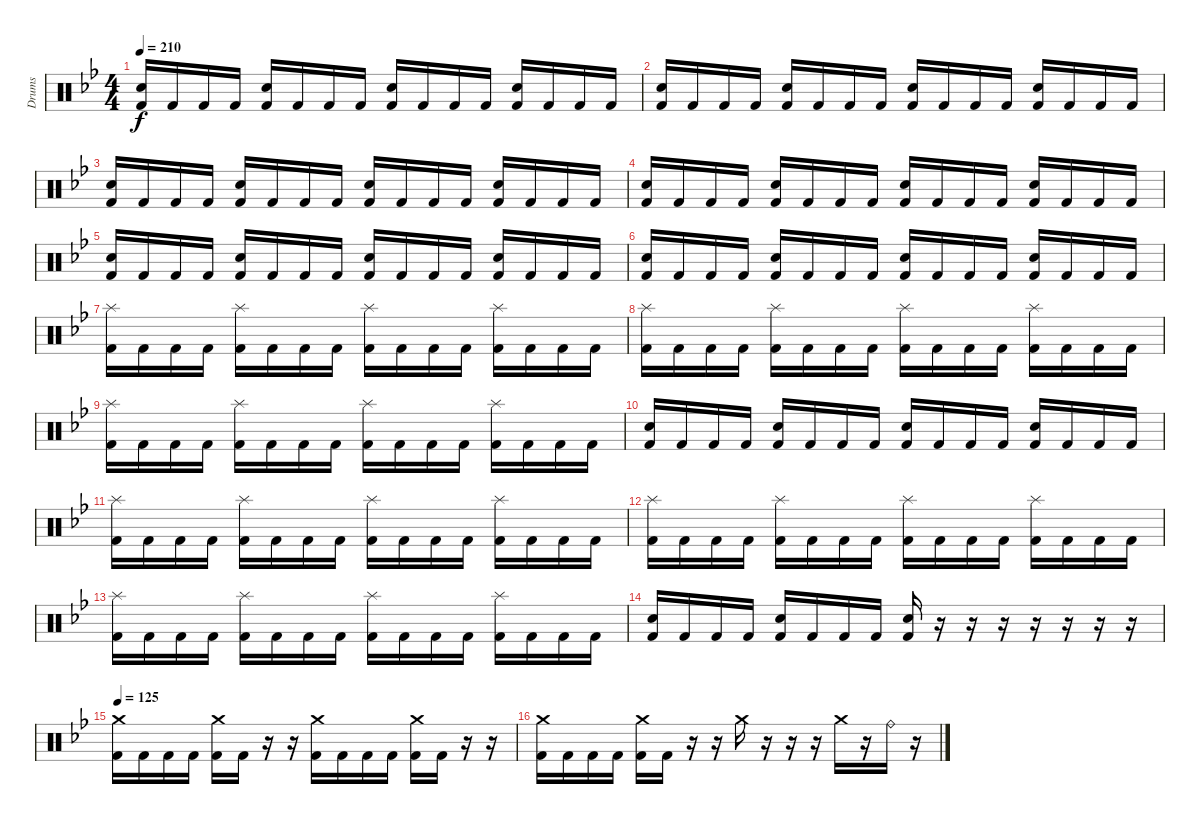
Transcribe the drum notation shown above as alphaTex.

\track ("Drums" "Drums") {instrument percussion}
\staff {score}
\articulation defaults
\ts (4 4)
\tempo 210
\clef neutral
\ks bb
("Electric Snare (hit)" "Kick (hit) 2").16{dy f} "Kick (hit) 2".16 "Kick (hit) 2".16 "Kick (hit) 2".16 ("Electric Snare (hit)" "Kick (hit) 2").16 "Kick (hit) 2".16 "Kick (hit) 2".16 "Kick (hit) 2".16 ("Electric Snare (hit)" "Kick (hit) 2").16 "Kick (hit) 2".16 "Kick (hit) 2".16 "Kick (hit) 2".16 ("Electric Snare (hit)" "Kick (hit) 2").16 "Kick (hit) 2".16 "Kick (hit) 2".16 "Kick (hit) 2".16 |
("Electric Snare (hit)" "Kick (hit) 2").16 "Kick (hit) 2".16 "Kick (hit) 2".16 "Kick (hit) 2".16 ("Electric Snare (hit)" "Kick (hit) 2").16 "Kick (hit) 2".16 "Kick (hit) 2".16 "Kick (hit) 2".16 ("Electric Snare (hit)" "Kick (hit) 2").16 "Kick (hit) 2".16 "Kick (hit) 2".16 "Kick (hit) 2".16 ("Electric Snare (hit)" "Kick (hit) 2").16 "Kick (hit) 2".16 "Kick (hit) 2".16 "Kick (hit) 2".16 |
("Electric Snare (hit)" "Kick (hit) 2").16 "Kick (hit) 2".16 "Kick (hit) 2".16 "Kick (hit) 2".16 ("Electric Snare (hit)" "Kick (hit) 2").16 "Kick (hit) 2".16 "Kick (hit) 2".16 "Kick (hit) 2".16 ("Electric Snare (hit)" "Kick (hit) 2").16 "Kick (hit) 2".16 "Kick (hit) 2".16 "Kick (hit) 2".16 ("Electric Snare (hit)" "Kick (hit) 2").16 "Kick (hit) 2".16 "Kick (hit) 2".16 "Kick (hit) 2".16 |
("Electric Snare (hit)" "Kick (hit) 2").16 "Kick (hit) 2".16 "Kick (hit) 2".16 "Kick (hit) 2".16 ("Electric Snare (hit)" "Kick (hit) 2").16 "Kick (hit) 2".16 "Kick (hit) 2".16 "Kick (hit) 2".16 ("Electric Snare (hit)" "Kick (hit) 2").16 "Kick (hit) 2".16 "Kick (hit) 2".16 "Kick (hit) 2".16 ("Electric Snare (hit)" "Kick (hit) 2").16 "Kick (hit) 2".16 "Kick (hit) 2".16 "Kick (hit) 2".16 |
("Electric Snare (hit)" "Kick (hit) 2").16 "Kick (hit) 2".16 "Kick (hit) 2".16 "Kick (hit) 2".16 ("Electric Snare (hit)" "Kick (hit) 2").16 "Kick (hit) 2".16 "Kick (hit) 2".16 "Kick (hit) 2".16 ("Electric Snare (hit)" "Kick (hit) 2").16 "Kick (hit) 2".16 "Kick (hit) 2".16 "Kick (hit) 2".16 ("Electric Snare (hit)" "Kick (hit) 2").16 "Kick (hit) 2".16 "Kick (hit) 2".16 "Kick (hit) 2".16 |
("Electric Snare (hit)" "Kick (hit) 2").16 "Kick (hit) 2".16 "Kick (hit) 2".16 "Kick (hit) 2".16 ("Electric Snare (hit)" "Kick (hit) 2").16 "Kick (hit) 2".16 "Kick (hit) 2".16 "Kick (hit) 2".16 ("Electric Snare (hit)" "Kick (hit) 2").16 "Kick (hit) 2".16 "Kick (hit) 2".16 "Kick (hit) 2".16 ("Electric Snare (hit)" "Kick (hit) 2").16 "Kick (hit) 2".16 "Kick (hit) 2".16 "Kick (hit) 2".16 |
("Splash (hit)" "Kick (hit) 2").16 "Kick (hit) 2".16 "Kick (hit) 2".16 "Kick (hit) 2".16 ("Splash (hit)" "Kick (hit) 2").16 "Kick (hit) 2".16 "Kick (hit) 2".16 "Kick (hit) 2".16 ("Splash (hit)" "Kick (hit) 2").16 "Kick (hit) 2".16 "Kick (hit) 2".16 "Kick (hit) 2".16 ("Splash (hit)" "Kick (hit) 2").16 "Kick (hit) 2".16 "Kick (hit) 2".16 "Kick (hit) 2".16 |
("Splash (hit)" "Kick (hit) 2").16 "Kick (hit) 2".16 "Kick (hit) 2".16 "Kick (hit) 2".16 ("Splash (hit)" "Kick (hit) 2").16 "Kick (hit) 2".16 "Kick (hit) 2".16 "Kick (hit) 2".16 ("Splash (hit)" "Kick (hit) 2").16 "Kick (hit) 2".16 "Kick (hit) 2".16 "Kick (hit) 2".16 ("Splash (hit)" "Kick (hit) 2").16 "Kick (hit) 2".16 "Kick (hit) 2".16 "Kick (hit) 2".16 |
("Splash (hit)" "Kick (hit) 2").16 "Kick (hit) 2".16 "Kick (hit) 2".16 "Kick (hit) 2".16 ("Splash (hit)" "Kick (hit) 2").16 "Kick (hit) 2".16 "Kick (hit) 2".16 "Kick (hit) 2".16 ("Splash (hit)" "Kick (hit) 2").16 "Kick (hit) 2".16 "Kick (hit) 2".16 "Kick (hit) 2".16 ("Splash (hit)" "Kick (hit) 2").16 "Kick (hit) 2".16 "Kick (hit) 2".16 "Kick (hit) 2".16 |
("Electric Snare (hit)" "Kick (hit) 2").16 "Kick (hit) 2".16 "Kick (hit) 2".16 "Kick (hit) 2".16 ("Electric Snare (hit)" "Kick (hit) 2").16 "Kick (hit) 2".16 "Kick (hit) 2".16 "Kick (hit) 2".16 ("Electric Snare (hit)" "Kick (hit) 2").16 "Kick (hit) 2".16 "Kick (hit) 2".16 "Kick (hit) 2".16 ("Electric Snare (hit)" "Kick (hit) 2").16 "Kick (hit) 2".16 "Kick (hit) 2".16 "Kick (hit) 2".16 |
("Splash (hit)" "Kick (hit) 2").16 "Kick (hit) 2".16 "Kick (hit) 2".16 "Kick (hit) 2".16 ("Splash (hit)" "Kick (hit) 2").16 "Kick (hit) 2".16 "Kick (hit) 2".16 "Kick (hit) 2".16 ("Splash (hit)" "Kick (hit) 2").16 "Kick (hit) 2".16 "Kick (hit) 2".16 "Kick (hit) 2".16 ("Splash (hit)" "Kick (hit) 2").16 "Kick (hit) 2".16 "Kick (hit) 2".16 "Kick (hit) 2".16 |
("Splash (hit)" "Kick (hit) 2").16 "Kick (hit) 2".16 "Kick (hit) 2".16 "Kick (hit) 2".16 ("Splash (hit)" "Kick (hit) 2").16 "Kick (hit) 2".16 "Kick (hit) 2".16 "Kick (hit) 2".16 ("Splash (hit)" "Kick (hit) 2").16 "Kick (hit) 2".16 "Kick (hit) 2".16 "Kick (hit) 2".16 ("Splash (hit)" "Kick (hit) 2").16 "Kick (hit) 2".16 "Kick (hit) 2".16 "Kick (hit) 2".16 |
("Splash (hit)" "Kick (hit) 2").16 "Kick (hit) 2".16 "Kick (hit) 2".16 "Kick (hit) 2".16 ("Splash (hit)" "Kick (hit) 2").16 "Kick (hit) 2".16 "Kick (hit) 2".16 "Kick (hit) 2".16 ("Splash (hit)" "Kick (hit) 2").16 "Kick (hit) 2".16 "Kick (hit) 2".16 "Kick (hit) 2".16 ("Splash (hit)" "Kick (hit) 2").16 "Kick (hit) 2".16 "Kick (hit) 2".16 "Kick (hit) 2".16 |
("Electric Snare (hit)" "Kick (hit) 2").16 "Kick (hit) 2".16 "Kick (hit) 2".16 "Kick (hit) 2".16 ("Electric Snare (hit)" "Kick (hit) 2").16 "Kick (hit) 2".16 "Kick (hit) 2".16 "Kick (hit) 2".16 ("Electric Snare (hit)" "Kick (hit) 2").16 r.16 r.16 r.16 r.16 r.16 r.16 r.16 |
\tempo 125
("Crash medium (hit)" "Kick (hit) 2").16 "Kick (hit) 2".16 "Kick (hit) 2".16 "Kick (hit) 2".16 ("Crash medium (hit)" "Kick (hit) 2").16 "Kick (hit) 2".16 r.16 r.16 ("Crash medium (hit)" "Kick (hit) 2").16 "Kick (hit) 2".16 "Kick (hit) 2".16 "Kick (hit) 2".16 ("Crash medium (hit)" "Kick (hit) 2").16 "Kick (hit) 2".16 r.16 r.16 |
("Crash medium (hit)" "Kick (hit) 2").16 "Kick (hit) 2".16 "Kick (hit) 2".16 "Kick (hit) 2".16 ("Crash medium (hit)" "Kick (hit) 2").16 "Kick (hit) 2".16 r.16 r.16 "Crash medium (hit)".16 r.16 r.16 r.16 "Crash medium (hit)".16 r.16 "Ride (bell)".16 r.16
